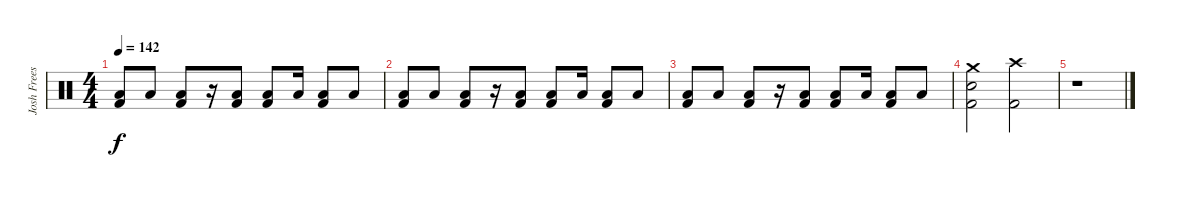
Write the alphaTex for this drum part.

\track ("Josh Freese" "Josh Frees") {instrument percussion}
\staff {score}
\articulation defaults
\ts (4 4)
\tempo 142
\clef neutral
\ks c
("Low Tom (hit)" "Kick (hit) 2").8{dy f} "Low Tom (hit)".8 ("Low Floor Tom (hit)" "Kick (hit) 2").8 r.16 ("Low Tom (hit)" "Kick (hit) 2").8 ("Low Tom (hit)" "Kick (hit) 2").8 "Low Tom (hit)".16 ("Low Floor Tom (hit)" "Kick (hit) 2").8 "Low Floor Tom (hit)".8 |
("Low Tom (hit)" "Kick (hit) 2").8 "Low Tom (hit)".8 ("Low Floor Tom (hit)" "Kick (hit) 2").8 r.16 ("Low Tom (hit)" "Kick (hit) 2").8 ("Low Tom (hit)" "Kick (hit) 2").8 "Low Tom (hit)".16 ("Low Floor Tom (hit)" "Kick (hit) 2").8 "Low Floor Tom (hit)".8 |
("Low Tom (hit)" "Kick (hit) 2").8 "Low Tom (hit)".8 ("Low Floor Tom (hit)" "Kick (hit) 2").8 r.16 ("Low Tom (hit)" "Kick (hit) 2").8 ("Low Tom (hit)" "Kick (hit) 2").8 "Low Tom (hit)".16 ("Low Floor Tom (hit)" "Kick (hit) 2").8 "Low Floor Tom (hit)".8 |
("Electric Snare (hit)" "Kick (hit) 2" "Crash medium (hit)").2 ("Crash high (hit)" "Kick (hit) 2").2 |
r.1
